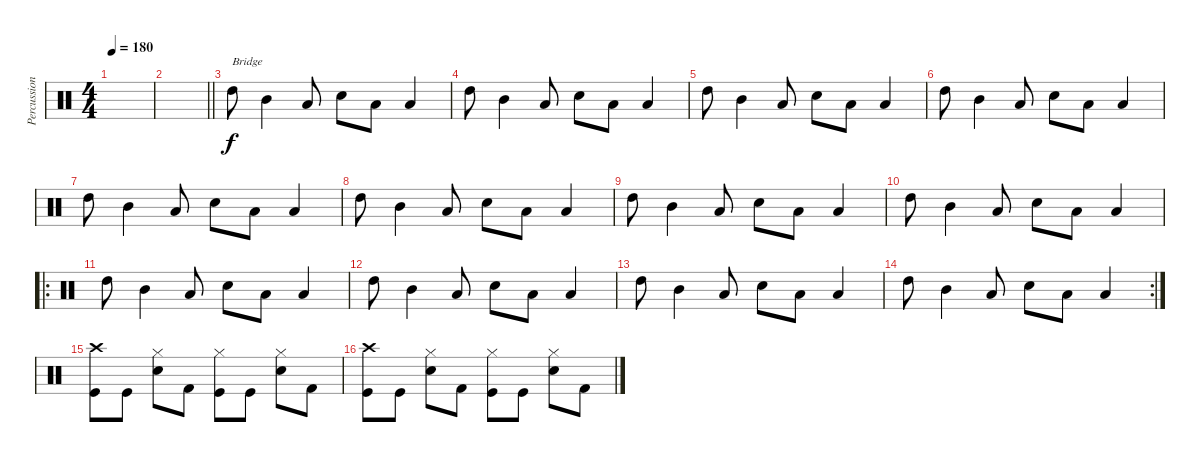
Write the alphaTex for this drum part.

\track ("Percussions" "Percussion") {instrument percussion}
\staff {score}
\articulation defaults
\ts (4 4)
\tempo 180
\clef neutral
\ks c
|
\barLineRight lightlight
|
"High Tom (hit)".8{txt "Bridge"} "Mid Tom (hit)".4 "Low Tom (hit)".8 "Electric Snare (hit)".8 "Low Tom (hit)".8 "Low Tom (hit)".4 |
"High Tom (hit)".8 "Mid Tom (hit)".4 "Low Tom (hit)".8 "Electric Snare (hit)".8 "Low Tom (hit)".8 "Low Tom (hit)".4 |
"High Tom (hit)".8 "Mid Tom (hit)".4 "Low Tom (hit)".8 "Electric Snare (hit)".8 "Low Tom (hit)".8 "Low Tom (hit)".4 |
"High Tom (hit)".8 "Mid Tom (hit)".4 "Low Tom (hit)".8 "Electric Snare (hit)".8 "Low Tom (hit)".8 "Low Tom (hit)".4 |
"High Tom (hit)".8 "Mid Tom (hit)".4 "Low Tom (hit)".8 "Electric Snare (hit)".8 "Low Tom (hit)".8 "Low Tom (hit)".4 |
"High Tom (hit)".8 "Mid Tom (hit)".4 "Low Tom (hit)".8 "Electric Snare (hit)".8 "Low Tom (hit)".8 "Low Tom (hit)".4 |
"High Tom (hit)".8 "Mid Tom (hit)".4 "Low Tom (hit)".8 "Electric Snare (hit)".8 "Low Tom (hit)".8 "Low Tom (hit)".4 |
"High Tom (hit)".8 "Mid Tom (hit)".4 "Low Tom (hit)".8 "Electric Snare (hit)".8 "Low Tom (hit)".8 "Low Tom (hit)".4 |
\ro "High Tom (hit)".8 "Mid Tom (hit)".4 "Low Tom (hit)".8 "Electric Snare (hit)".8 "Low Tom (hit)".8 "Low Tom (hit)".4
|
"High Tom (hit)".8 "Mid Tom (hit)".4 "Low Tom (hit)".8 "Electric Snare (hit)".8 "Low Tom (hit)".8 "Low Tom (hit)".4 |
"High Tom (hit)".8 "Mid Tom (hit)".4 "Low Tom (hit)".8 "Electric Snare (hit)".8 "Low Tom (hit)".8 "Low Tom (hit)".4 |
\rc 2 "High Tom (hit)".8 "Mid Tom (hit)".4 "Low Tom (hit)".8 "Electric Snare (hit)".8 "Low Tom (hit)".8 "Low Tom (hit)".4
|
("Crash high (hit)" "Kick (hit)").8{dy f} "Kick (hit)".8 ("Hi-Hat (closed)" "Electric Snare (hit)").8 "Kick (hit) 2".8 ("Hi-Hat (closed)" "Kick (hit)").8 "Kick (hit)".8 ("Hi-Hat (closed)" "Electric Snare (hit)").8 "Kick (hit) 2".8 |
("Crash high (hit)" "Kick (hit)").8 "Kick (hit)".8 ("Hi-Hat (closed)" "Electric Snare (hit)").8 "Kick (hit) 2".8 ("Hi-Hat (closed)" "Kick (hit)").8 "Kick (hit)".8 ("Hi-Hat (closed)" "Electric Snare (hit)").8 "Kick (hit) 2".8
